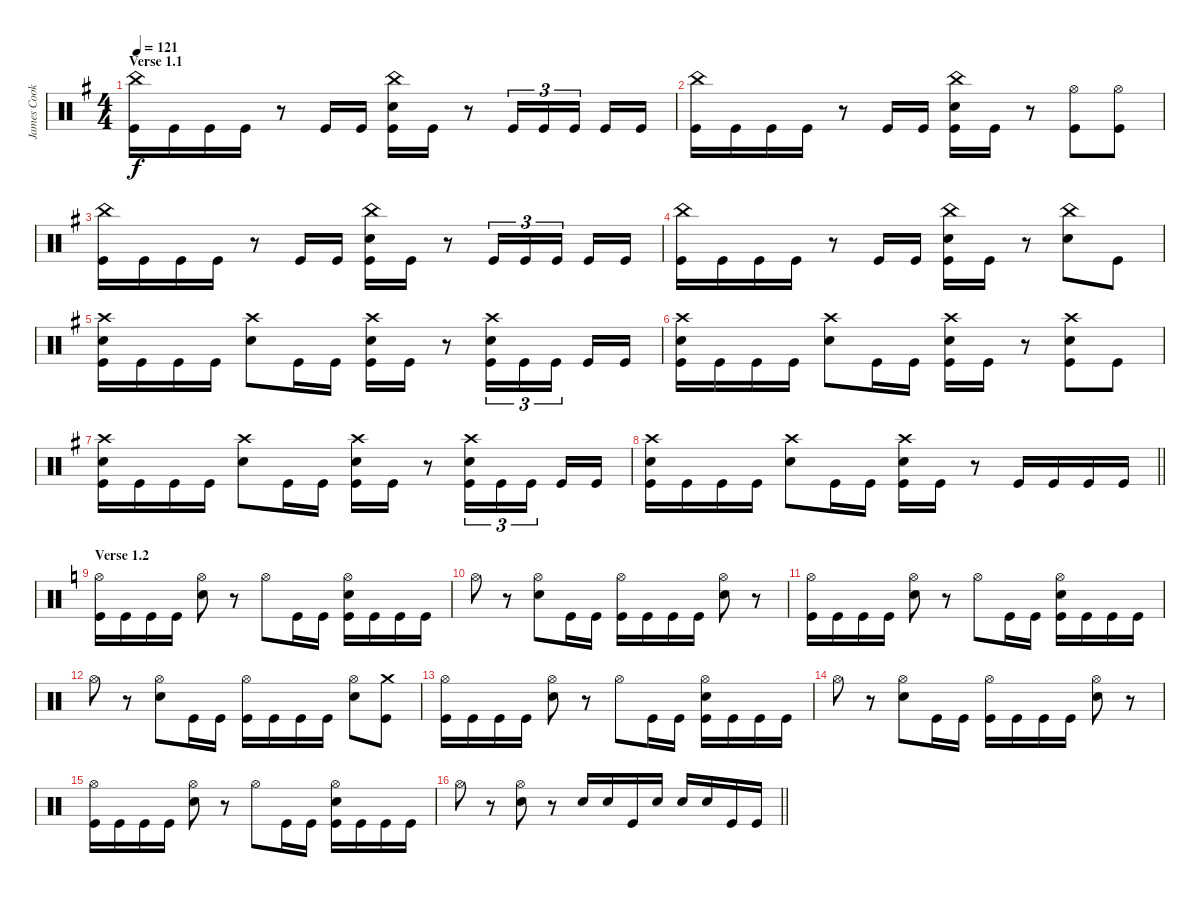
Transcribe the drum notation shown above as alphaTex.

\track ("James Cook" "James Cook") {instrument percussion}
\staff {score}
\articulation defaults
\ts (4 4)
\section ("" "Verse 1.1")
\tempo 121
\clef neutral
\ks g
("China (hit)" "Kick (hit)").16{dy f} "Kick (hit)".16 "Kick (hit)".16 "Kick (hit)".16 r.8 "Kick (hit)".16 "Kick (hit)".16 ("China (hit)" "Snare (hit) 2" "Kick (hit)").16 "Kick (hit)".16 r.8 "Kick (hit)".16{tu (3 2)} "Kick (hit)".16{tu (3 2)} "Kick (hit)".16{tu (3 2) beam splitsecondary} "Kick (hit)".16 "Kick (hit)".16 |
("China (hit)" "Kick (hit)").16 "Kick (hit)".16 "Kick (hit)".16 "Kick (hit)".16 r.8 "Kick (hit)".16 "Kick (hit)".16 ("China (hit)" "Snare (hit) 2" "Kick (hit)").16 "Kick (hit)".16 r.8 ("Hi-Hat (open)" "Kick (hit)").8 ("Hi-Hat (open)" "Kick (hit)").8 |
("China (hit)" "Kick (hit)").16 "Kick (hit)".16 "Kick (hit)".16 "Kick (hit)".16 r.8 "Kick (hit)".16 "Kick (hit)".16 ("China (hit)" "Snare (hit) 2" "Kick (hit)").16 "Kick (hit)".16 r.8 "Kick (hit)".16{tu (3 2)} "Kick (hit)".16{tu (3 2)} "Kick (hit)".16{tu (3 2) beam splitsecondary} "Kick (hit)".16 "Kick (hit)".16 |
("China (hit)" "Kick (hit)").16 "Kick (hit)".16 "Kick (hit)".16 "Kick (hit)".16 r.8 "Kick (hit)".16 "Kick (hit)".16 ("China (hit)" "Snare (hit) 2" "Kick (hit)").16 "Kick (hit)".16 r.8 ("China (hit)" "Snare (hit) 2").8 "Kick (hit)".8 |
("Crash high (hit)" "Snare (hit) 2" "Kick (hit)").16 "Kick (hit)".16 "Kick (hit)".16 "Kick (hit)".16 ("Crash high (hit)" "Snare (hit) 2").8 "Kick (hit)".16 "Kick (hit)".16 ("Crash high (hit)" "Snare (hit) 2" "Kick (hit)").16 "Kick (hit)".16 r.8 ("Crash high (hit)" "Snare (hit) 2" "Kick (hit)").16{tu (3 2)} "Kick (hit)".16{tu (3 2)} "Kick (hit)".16{tu (3 2) beam splitsecondary} "Kick (hit)".16 "Kick (hit)".16 |
("Crash high (hit)" "Snare (hit) 2" "Kick (hit)").16 "Kick (hit)".16 "Kick (hit)".16 "Kick (hit)".16 ("Crash high (hit)" "Snare (hit) 2").8 "Kick (hit)".16 "Kick (hit)".16 ("Crash high (hit)" "Snare (hit) 2" "Kick (hit)").16 "Kick (hit)".16 r.8 ("Crash high (hit)" "Snare (hit) 2" "Kick (hit)").8 "Kick (hit)".8 |
("Crash high (hit)" "Snare (hit) 2" "Kick (hit)").16 "Kick (hit)".16 "Kick (hit)".16 "Kick (hit)".16 ("Crash high (hit)" "Snare (hit) 2").8 "Kick (hit)".16 "Kick (hit)".16 ("Crash high (hit)" "Snare (hit) 2" "Kick (hit)").16 "Kick (hit)".16 r.8 ("Crash high (hit)" "Snare (hit) 2" "Kick (hit)").16{tu (3 2)} "Kick (hit)".16{tu (3 2)} "Kick (hit)".16{tu (3 2) beam splitsecondary} "Kick (hit)".16 "Kick (hit)".16 |
\barLineRight lightlight
("Crash high (hit)" "Snare (hit) 2" "Kick (hit)").16 "Kick (hit)".16 "Kick (hit)".16 "Kick (hit)".16 ("Crash high (hit)" "Snare (hit) 2").8 "Kick (hit)".16 "Kick (hit)".16 ("Crash high (hit)" "Snare (hit) 2" "Kick (hit)").16 "Kick (hit)".16 r.8 "Kick (hit)".16 "Kick (hit)".16 "Kick (hit)".16 "Kick (hit)".16 |
\section ("" "Verse 1.2")
\ks c
("Hi-Hat (open)" "Kick (hit)").16 "Kick (hit)".16 "Kick (hit)".16 "Kick (hit)".16 ("Hi-Hat (open)" "Snare (hit) 2").8 r.8 "Hi-Hat (open)".8 "Kick (hit)".16 "Kick (hit)".16 ("Hi-Hat (open)" "Snare (hit) 2" "Kick (hit)").16 "Kick (hit)".16 "Kick (hit)".16 "Kick (hit)".16 |
"Hi-Hat (open)".8 r.8 ("Hi-Hat (open)" "Snare (hit) 2").8 "Kick (hit)".16 "Kick (hit)".16 ("Hi-Hat (open)" "Kick (hit)").16 "Kick (hit)".16 "Kick (hit)".16 "Kick (hit)".16 ("Hi-Hat (open)" "Snare (hit) 2").8 r.8 |
("Hi-Hat (open)" "Kick (hit)").16 "Kick (hit)".16 "Kick (hit)".16 "Kick (hit)".16 ("Hi-Hat (open)" "Snare (hit) 2").8 r.8 "Hi-Hat (open)".8 "Kick (hit)".16 "Kick (hit)".16 ("Hi-Hat (open)" "Snare (hit) 2" "Kick (hit)").16 "Kick (hit)".16 "Kick (hit)".16 "Kick (hit)".16 |
"Hi-Hat (open)".8 r.8 ("Hi-Hat (open)" "Snare (hit) 2").8 "Kick (hit)".16 "Kick (hit)".16 ("Hi-Hat (open)" "Kick (hit)").16 "Kick (hit)".16 "Kick (hit)".16 "Kick (hit)".16 ("Hi-Hat (open)" "Snare (hit) 2").8 ("Crash medium (hit)" "Kick (hit)").8 |
("Hi-Hat (open)" "Kick (hit)").16 "Kick (hit)".16 "Kick (hit)".16 "Kick (hit)".16 ("Hi-Hat (open)" "Snare (hit) 2").8 r.8 "Hi-Hat (open)".8 "Kick (hit)".16 "Kick (hit)".16 ("Hi-Hat (open)" "Snare (hit) 2" "Kick (hit)").16 "Kick (hit)".16 "Kick (hit)".16 "Kick (hit)".16 |
"Hi-Hat (open)".8 r.8 ("Hi-Hat (open)" "Snare (hit) 2").8 "Kick (hit)".16 "Kick (hit)".16 ("Hi-Hat (open)" "Kick (hit)").16 "Kick (hit)".16 "Kick (hit)".16 "Kick (hit)".16 ("Hi-Hat (open)" "Snare (hit) 2").8 r.8 |
("Hi-Hat (open)" "Kick (hit)").16 "Kick (hit)".16 "Kick (hit)".16 "Kick (hit)".16 ("Hi-Hat (open)" "Snare (hit) 2").8 r.8 "Hi-Hat (open)".8 "Kick (hit)".16 "Kick (hit)".16 ("Hi-Hat (open)" "Snare (hit) 2" "Kick (hit)").16 "Kick (hit)".16 "Kick (hit)".16 "Kick (hit)".16 |
\barLineRight lightlight "Hi-Hat (open)".8
r.8 ("Hi-Hat (open)" "Snare (hit) 2").8 r.8 "Snare (hit) 2".16 "Snare (hit) 2".16 "Kick (hit)".16 "Snare (hit) 2".16 "Snare (hit) 2".16 "Snare (hit) 2".16 "Kick (hit)".16 "Kick (hit)".16
